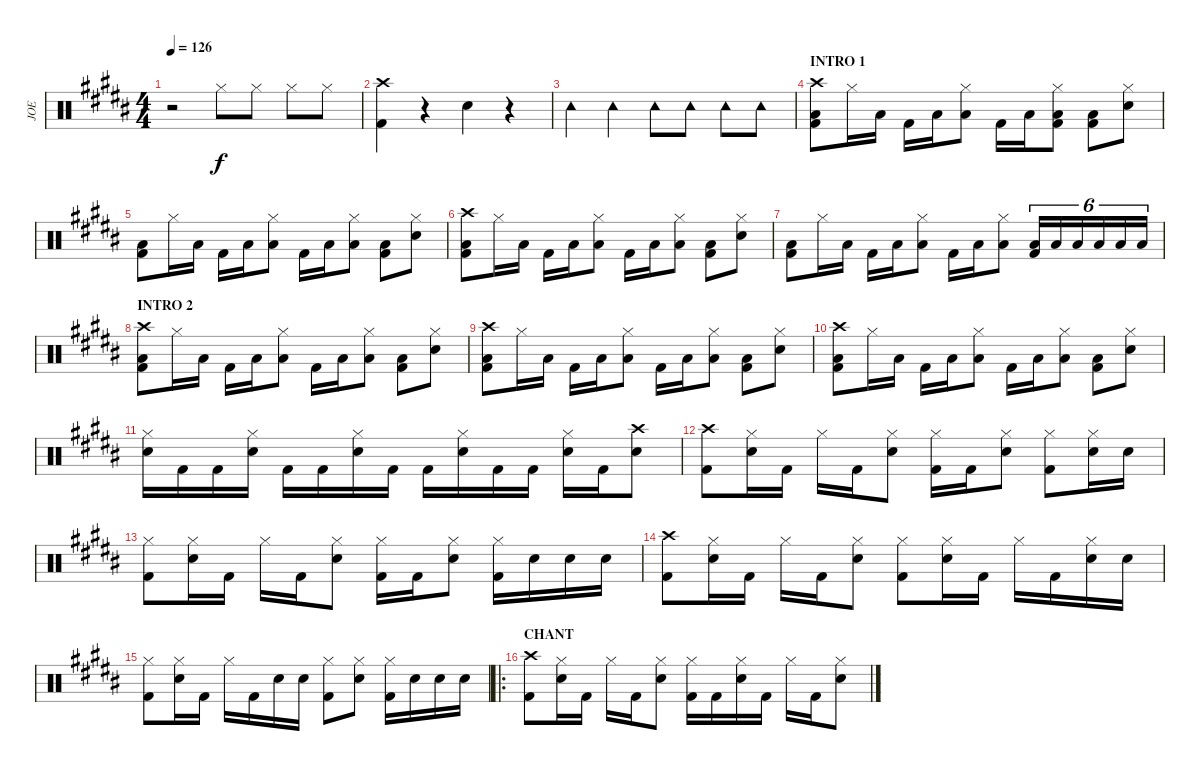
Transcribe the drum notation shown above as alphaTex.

\track ("JOE" "JOE") {instrument percussion}
\staff {score}
\articulation defaults
\ts (4 4)
\tempo 126
\clef neutral
\ks b
r.2{dy f} "Hi-Hat (closed)".8 "Hi-Hat (closed)".8 "Hi-Hat (closed)".8 "Hi-Hat (closed)".8 |
("Crash high (hit)" "Kick (hit) 2").4 r.4 "Snare (hit) 2".4 r.4 |
"Tambourine (hit)".4 "Tambourine (hit)".4 "Tambourine (hit)".8 "Tambourine (hit)".8 "Tambourine (hit)".8 "Tambourine (hit)".8 |
\section ("" "INTRO 1")
("Crash high (hit)" "Low Floor Tom (hit)" "Kick (hit) 2").8 "Hi-Hat (closed)".16 "Low Floor Tom (hit)".16 "Kick (hit) 2".16 "Low Floor Tom (hit)".16 ("Hi-Hat (closed)" "Low Floor Tom (hit)").8 "Kick (hit) 2".16 "Low Floor Tom (hit)".16 ("Hi-Hat (closed)" "Low Floor Tom (hit)" "Kick (hit) 2").8 ("Low Floor Tom (hit)" "Kick (hit) 2").8 ("Hi-Hat (closed)" "Snare (hit) 2").8 |
("Low Floor Tom (hit)" "Kick (hit) 2").8 "Hi-Hat (closed)".16 "Low Floor Tom (hit)".16 "Kick (hit) 2".16 "Low Floor Tom (hit)".16 ("Hi-Hat (closed)" "Low Floor Tom (hit)").8 "Kick (hit) 2".16 "Low Floor Tom (hit)".16 ("Hi-Hat (closed)" "Low Floor Tom (hit)").8 ("Low Floor Tom (hit)" "Kick (hit) 2").8 ("Hi-Hat (closed)" "Snare (hit) 2").8 |
("Crash high (hit)" "Low Floor Tom (hit)" "Kick (hit) 2").8 "Hi-Hat (closed)".16 "Low Floor Tom (hit)".16 "Kick (hit) 2".16 "Low Floor Tom (hit)".16 ("Hi-Hat (closed)" "Low Floor Tom (hit)").8 "Kick (hit) 2".16 "Low Floor Tom (hit)".16 ("Hi-Hat (closed)" "Low Floor Tom (hit)").8 ("Low Floor Tom (hit)" "Kick (hit) 2").8 ("Hi-Hat (closed)" "Snare (hit) 2").8 |
("Low Floor Tom (hit)" "Kick (hit) 2").8 "Hi-Hat (closed)".16 "Low Floor Tom (hit)".16 "Kick (hit) 2".16 "Low Floor Tom (hit)".16 ("Hi-Hat (closed)" "Low Floor Tom (hit)").8 "Kick (hit) 2".16 "Low Floor Tom (hit)".16 ("Hi-Hat (closed)" "Low Floor Tom (hit)").8 ("Low Floor Tom (hit)" "Kick (hit) 2").16{tu (6 4)} "Low Floor Tom (hit)".16{tu (6 4)} "Low Floor Tom (hit)".16{tu (6 4)} "Low Tom (hit)".16{tu (6 4)} "Low Tom (hit)".16{tu (6 4)} "Low Tom (hit)".16{tu (6 4)} |
\section ("" "INTRO 2")
("Crash high (hit)" "Low Floor Tom (hit)" "Kick (hit) 2").8 "Hi-Hat (closed)".16 "Low Floor Tom (hit)".16 "Kick (hit) 2".16 "Low Floor Tom (hit)".16 ("Hi-Hat (closed)" "Low Floor Tom (hit)").8 "Kick (hit) 2".16 "Low Floor Tom (hit)".16 ("Hi-Hat (closed)" "Low Floor Tom (hit)").8 ("Low Floor Tom (hit)" "Kick (hit) 2").8 ("Hi-Hat (closed)" "Snare (hit) 2").8 |
("Crash high (hit)" "Low Floor Tom (hit)" "Kick (hit) 2").8 "Hi-Hat (closed)".16 "Low Floor Tom (hit)".16 "Kick (hit) 2".16 "Low Floor Tom (hit)".16 ("Hi-Hat (closed)" "Low Floor Tom (hit)").8 "Kick (hit) 2".16 "Low Floor Tom (hit)".16 ("Hi-Hat (closed)" "Low Floor Tom (hit)").8 ("Low Floor Tom (hit)" "Kick (hit) 2").8 ("Hi-Hat (closed)" "Snare (hit) 2").8 |
("Crash high (hit)" "Low Floor Tom (hit)" "Kick (hit) 2").8 "Hi-Hat (closed)".16 "Low Floor Tom (hit)".16 "Kick (hit) 2".16 "Low Floor Tom (hit)".16 ("Hi-Hat (closed)" "Low Floor Tom (hit)").8 "Kick (hit) 2".16 "Low Floor Tom (hit)".16 ("Hi-Hat (closed)" "Low Floor Tom (hit)").8 ("Low Floor Tom (hit)" "Kick (hit) 2").8 ("Hi-Hat (closed)" "Snare (hit) 2").8 |
("Hi-Hat (closed)" "Snare (hit) 2").16 "Kick (hit) 2".16 "Kick (hit) 2".16 ("Hi-Hat (closed)" "Snare (hit) 2").16 "Kick (hit) 2".16 "Kick (hit) 2".16 ("Hi-Hat (closed)" "Snare (hit) 2").16 "Kick (hit) 2".16 "Kick (hit) 2".16 ("Hi-Hat (closed)" "Snare (hit) 2").16 "Kick (hit) 2".16 "Kick (hit) 2".16 ("Hi-Hat (closed)" "Snare (hit) 2").16 "Kick (hit) 2".16 ("Crash high (hit)" "Snare (hit) 2").8 |
("Crash high (hit)" "Kick (hit) 2").8 ("Hi-Hat (closed)" "Snare (hit) 2").16 "Kick (hit) 2".16 "Hi-Hat (closed)".16 "Kick (hit) 2".16 ("Hi-Hat (closed)" "Snare (hit) 2").8 ("Hi-Hat (closed)" "Kick (hit) 2").16 "Kick (hit) 2".16 ("Hi-Hat (closed)" "Snare (hit) 2").8 ("Hi-Hat (closed)" "Kick (hit) 2").8 ("Hi-Hat (closed)" "Snare (hit) 2").16 "Snare (hit) 2".16 |
("Hi-Hat (closed)" "Kick (hit) 2").8 ("Hi-Hat (closed)" "Snare (hit) 2").16 "Kick (hit) 2".16 "Hi-Hat (closed)".16 "Kick (hit) 2".16 ("Hi-Hat (closed)" "Snare (hit) 2").8 ("Hi-Hat (closed)" "Kick (hit) 2").16 "Kick (hit) 2".16 ("Hi-Hat (closed)" "Snare (hit) 2").8 ("Hi-Hat (closed)" "Kick (hit) 2").16 "Snare (hit) 2".16 "Snare (hit) 2".16 "Snare (hit) 2".16 |
("Crash high (hit)" "Kick (hit) 2").8 ("Hi-Hat (closed)" "Snare (hit) 2").16 "Kick (hit) 2".16 "Hi-Hat (closed)".16 "Kick (hit) 2".16 ("Hi-Hat (closed)" "Snare (hit) 2").8 ("Hi-Hat (closed)" "Kick (hit) 2").8 ("Hi-Hat (closed)" "Snare (hit) 2").16 "Kick (hit) 2".16 "Hi-Hat (closed)".16 "Kick (hit) 2".16 ("Hi-Hat (closed)" "Snare (hit) 2").16 "Snare (hit) 2".16 |
("Hi-Hat (closed)" "Kick (hit) 2").8 ("Hi-Hat (closed)" "Snare (hit) 2").16 "Kick (hit) 2".16 "Hi-Hat (closed)".16 "Kick (hit) 2".16 "Snare (hit) 2".16 "Snare (hit) 2".16 ("Hi-Hat (closed)" "Kick (hit) 2").8 ("Hi-Hat (closed)" "Snare (hit) 2").8 ("Hi-Hat (closed)" "Kick (hit) 2").16 "Snare (hit) 2".16 "Snare (hit) 2".16 "Snare (hit) 2".16 |
\ro
\section ("" "CHANT")
("Crash high (hit)" "Kick (hit) 2").8 ("Hi-Hat (closed)" "Snare (hit) 2").16 "Kick (hit) 2".16 "Hi-Hat (closed)".16 "Kick (hit) 2".16 ("Hi-Hat (closed)" "Snare (hit) 2").8 ("Hi-Hat (closed)" "Kick (hit) 2").16 "Kick (hit) 2".16 ("Hi-Hat (closed)" "Snare (hit) 2").16 "Kick (hit) 2".16 "Hi-Hat (closed)".16 "Kick (hit) 2".16 ("Hi-Hat (closed)" "Snare (hit) 2").8
